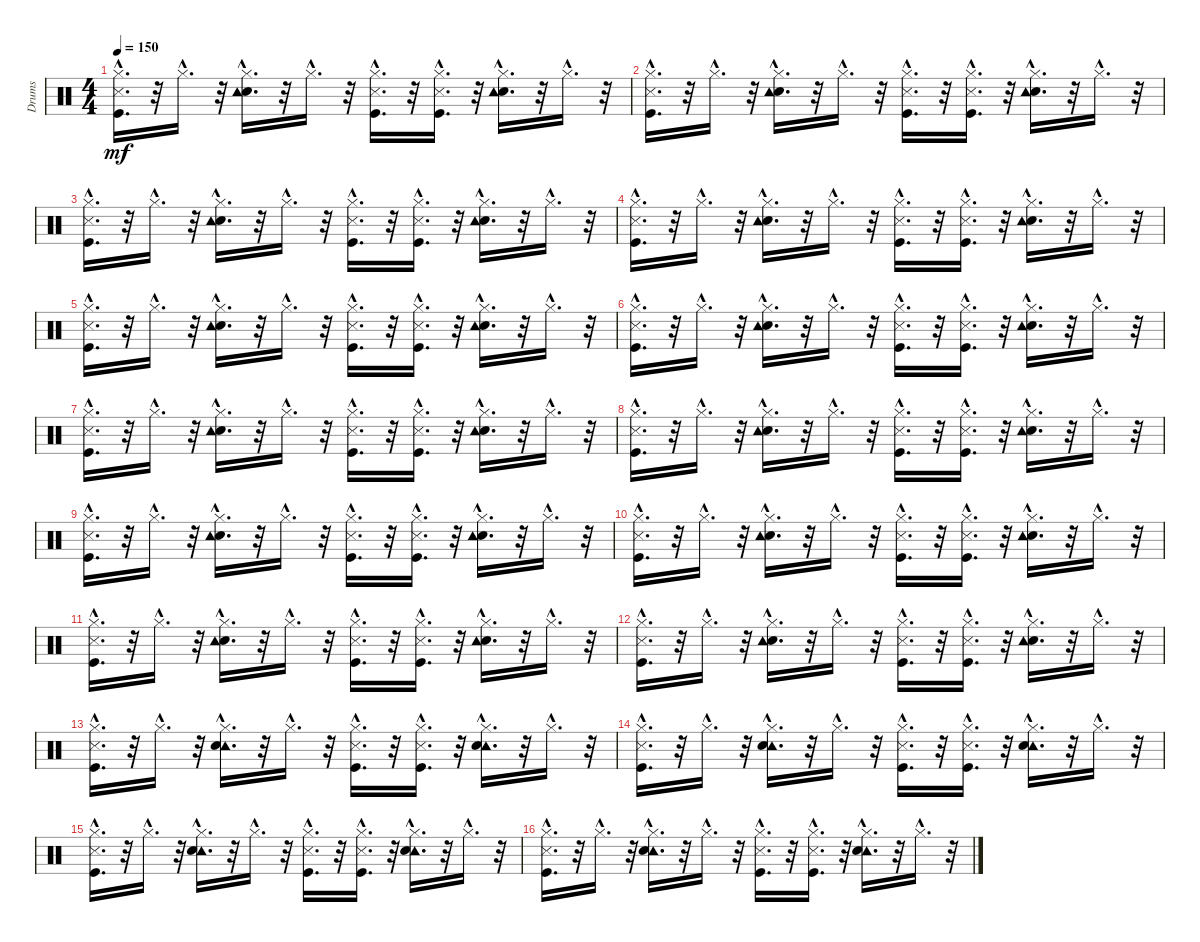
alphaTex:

\track ("Drums" "Drums") {instrument percussion}
\staff {score}
\articulation defaults
\ts (4 4)
\tempo 150
\clef neutral
\ks c
("Hi-Hat (closed)"{hac} "Kick (hit)"{hac} "Metronome (hit)"{hac}).16{d dy mf} r.32 "Hi-Hat (closed)"{hac}.16{d} r.32 ("Hi-Hat (closed)"{hac} "Electric Snare (hit)"{hac} "Tambourine (hit)"{hac}).16{d} r.32 "Hi-Hat (closed)"{hac}.16{d} r.32 ("Hi-Hat (closed)"{hac} "Kick (hit)"{hac} "Metronome (hit)"{hac}).16{d} r.32 ("Kick (hit)"{hac} "Metronome (hit)"{hac} "Hi-Hat (closed)"{hac}).16{d} r.32 ("Hi-Hat (closed)"{hac} "Electric Snare (hit)"{hac} "Tambourine (hit)"{hac}).16{d} r.32 "Hi-Hat (closed)"{hac}.16{d} r.32 |
("Hi-Hat (closed)"{hac} "Kick (hit)"{hac} "Metronome (hit)"{hac}).16{d} r.32 "Hi-Hat (closed)"{hac}.16{d} r.32 ("Hi-Hat (closed)"{hac} "Electric Snare (hit)"{hac} "Tambourine (hit)"{hac}).16{d} r.32 "Hi-Hat (closed)"{hac}.16{d} r.32 ("Hi-Hat (closed)"{hac} "Kick (hit)"{hac} "Metronome (hit)"{hac}).16{d} r.32 ("Kick (hit)"{hac} "Metronome (hit)"{hac} "Hi-Hat (closed)"{hac}).16{d} r.32 ("Hi-Hat (closed)"{hac} "Electric Snare (hit)"{hac} "Tambourine (hit)"{hac}).16{d} r.32 "Hi-Hat (closed)"{hac}.16{d} r.32 |
("Hi-Hat (closed)"{hac} "Kick (hit)"{hac} "Metronome (hit)"{hac}).16{d} r.32 "Hi-Hat (closed)"{hac}.16{d} r.32 ("Hi-Hat (closed)"{hac} "Electric Snare (hit)"{hac} "Tambourine (hit)"{hac}).16{d} r.32 "Hi-Hat (closed)"{hac}.16{d} r.32 ("Hi-Hat (closed)"{hac} "Kick (hit)"{hac} "Metronome (hit)"{hac}).16{d} r.32 ("Kick (hit)"{hac} "Metronome (hit)"{hac} "Hi-Hat (closed)"{hac}).16{d} r.32 ("Hi-Hat (closed)"{hac} "Electric Snare (hit)"{hac} "Tambourine (hit)"{hac}).16{d} r.32 "Hi-Hat (closed)"{hac}.16{d} r.32 |
("Hi-Hat (closed)"{hac} "Kick (hit)"{hac} "Metronome (hit)"{hac}).16{d} r.32 "Hi-Hat (closed)"{hac}.16{d} r.32 ("Hi-Hat (closed)"{hac} "Electric Snare (hit)"{hac} "Tambourine (hit)"{hac}).16{d} r.32 "Hi-Hat (closed)"{hac}.16{d} r.32 ("Hi-Hat (closed)"{hac} "Kick (hit)"{hac} "Metronome (hit)"{hac}).16{d} r.32 ("Kick (hit)"{hac} "Metronome (hit)"{hac} "Hi-Hat (closed)"{hac}).16{d} r.32 ("Hi-Hat (closed)"{hac} "Electric Snare (hit)"{hac} "Tambourine (hit)"{hac}).16{d} r.32 "Hi-Hat (closed)"{hac}.16{d} r.32 |
("Hi-Hat (closed)"{hac} "Kick (hit)"{hac} "Metronome (hit)"{hac}).16{d} r.32 "Hi-Hat (closed)"{hac}.16{d} r.32 ("Hi-Hat (closed)"{hac} "Electric Snare (hit)"{hac} "Tambourine (hit)"{hac}).16{d} r.32 "Hi-Hat (closed)"{hac}.16{d} r.32 ("Hi-Hat (closed)"{hac} "Kick (hit)"{hac} "Metronome (hit)"{hac}).16{d} r.32 ("Kick (hit)"{hac} "Metronome (hit)"{hac} "Hi-Hat (closed)"{hac}).16{d} r.32 ("Hi-Hat (closed)"{hac} "Electric Snare (hit)"{hac} "Tambourine (hit)"{hac}).16{d} r.32 "Hi-Hat (closed)"{hac}.16{d} r.32 |
("Hi-Hat (closed)"{hac} "Kick (hit)"{hac} "Metronome (hit)"{hac}).16{d} r.32 "Hi-Hat (closed)"{hac}.16{d} r.32 ("Hi-Hat (closed)"{hac} "Electric Snare (hit)"{hac} "Tambourine (hit)"{hac}).16{d} r.32 "Hi-Hat (closed)"{hac}.16{d} r.32 ("Hi-Hat (closed)"{hac} "Kick (hit)"{hac} "Metronome (hit)"{hac}).16{d} r.32 ("Kick (hit)"{hac} "Metronome (hit)"{hac} "Hi-Hat (closed)"{hac}).16{d} r.32 ("Hi-Hat (closed)"{hac} "Electric Snare (hit)"{hac} "Tambourine (hit)"{hac}).16{d} r.32 "Hi-Hat (closed)"{hac}.16{d} r.32 |
("Hi-Hat (closed)"{hac} "Kick (hit)"{hac} "Metronome (hit)"{hac}).16{d} r.32 "Hi-Hat (closed)"{hac}.16{d} r.32 ("Hi-Hat (closed)"{hac} "Electric Snare (hit)"{hac} "Tambourine (hit)"{hac}).16{d} r.32 "Hi-Hat (closed)"{hac}.16{d} r.32 ("Hi-Hat (closed)"{hac} "Kick (hit)"{hac} "Metronome (hit)"{hac}).16{d} r.32 ("Kick (hit)"{hac} "Metronome (hit)"{hac} "Hi-Hat (closed)"{hac}).16{d} r.32 ("Hi-Hat (closed)"{hac} "Electric Snare (hit)"{hac} "Tambourine (hit)"{hac}).16{d} r.32 "Hi-Hat (closed)"{hac}.16{d} r.32 |
("Hi-Hat (closed)"{hac} "Kick (hit)"{hac} "Metronome (hit)"{hac}).16{d} r.32 "Hi-Hat (closed)"{hac}.16{d} r.32 ("Hi-Hat (closed)"{hac} "Electric Snare (hit)"{hac} "Tambourine (hit)"{hac}).16{d} r.32 "Hi-Hat (closed)"{hac}.16{d} r.32 ("Hi-Hat (closed)"{hac} "Kick (hit)"{hac} "Metronome (hit)"{hac}).16{d} r.32 ("Kick (hit)"{hac} "Metronome (hit)"{hac} "Hi-Hat (closed)"{hac}).16{d} r.32 ("Hi-Hat (closed)"{hac} "Electric Snare (hit)"{hac} "Tambourine (hit)"{hac}).16{d} r.32 "Hi-Hat (closed)"{hac}.16{d} r.32 |
("Hi-Hat (closed)"{hac} "Kick (hit)"{hac} "Metronome (hit)"{hac}).16{d} r.32 "Hi-Hat (closed)"{hac}.16{d} r.32 ("Hi-Hat (closed)"{hac} "Electric Snare (hit)"{hac} "Tambourine (hit)"{hac}).16{d} r.32 "Hi-Hat (closed)"{hac}.16{d} r.32 ("Hi-Hat (closed)"{hac} "Kick (hit)"{hac} "Metronome (hit)"{hac}).16{d} r.32 ("Kick (hit)"{hac} "Metronome (hit)"{hac} "Hi-Hat (closed)"{hac}).16{d} r.32 ("Hi-Hat (closed)"{hac} "Electric Snare (hit)"{hac} "Tambourine (hit)"{hac}).16{d} r.32 "Hi-Hat (closed)"{hac}.16{d} r.32 |
("Hi-Hat (closed)"{hac} "Kick (hit)"{hac} "Metronome (hit)"{hac}).16{d} r.32 "Hi-Hat (closed)"{hac}.16{d} r.32 ("Hi-Hat (closed)"{hac} "Electric Snare (hit)"{hac} "Tambourine (hit)"{hac}).16{d} r.32 "Hi-Hat (closed)"{hac}.16{d} r.32 ("Hi-Hat (closed)"{hac} "Kick (hit)"{hac} "Metronome (hit)"{hac}).16{d} r.32 ("Kick (hit)"{hac} "Metronome (hit)"{hac} "Hi-Hat (closed)"{hac}).16{d} r.32 ("Hi-Hat (closed)"{hac} "Electric Snare (hit)"{hac} "Tambourine (hit)"{hac}).16{d} r.32 "Hi-Hat (closed)"{hac}.16{d} r.32 |
("Hi-Hat (closed)"{hac} "Kick (hit)"{hac} "Metronome (hit)"{hac}).16{d} r.32 "Hi-Hat (closed)"{hac}.16{d} r.32 ("Hi-Hat (closed)"{hac} "Electric Snare (hit)"{hac} "Tambourine (hit)"{hac}).16{d} r.32 "Hi-Hat (closed)"{hac}.16{d} r.32 ("Hi-Hat (closed)"{hac} "Kick (hit)"{hac} "Metronome (hit)"{hac}).16{d} r.32 ("Kick (hit)"{hac} "Metronome (hit)"{hac} "Hi-Hat (closed)"{hac}).16{d} r.32 ("Hi-Hat (closed)"{hac} "Electric Snare (hit)"{hac} "Tambourine (hit)"{hac}).16{d} r.32 "Hi-Hat (closed)"{hac}.16{d} r.32 |
("Hi-Hat (closed)"{hac} "Kick (hit)"{hac} "Metronome (hit)"{hac}).16{d} r.32 "Hi-Hat (closed)"{hac}.16{d} r.32 ("Hi-Hat (closed)"{hac} "Electric Snare (hit)"{hac} "Tambourine (hit)"{hac}).16{d} r.32 "Hi-Hat (closed)"{hac}.16{d} r.32 ("Hi-Hat (closed)"{hac} "Kick (hit)"{hac} "Metronome (hit)"{hac}).16{d} r.32 ("Kick (hit)"{hac} "Metronome (hit)"{hac} "Hi-Hat (closed)"{hac}).16{d} r.32 ("Hi-Hat (closed)"{hac} "Electric Snare (hit)"{hac} "Tambourine (hit)"{hac}).16{d} r.32 "Hi-Hat (closed)"{hac}.16{d} r.32 |
("Metronome (hit)"{hac} "Kick (hit)"{hac} "Hi-Hat (closed)"{hac}).16{d} r.32 "Hi-Hat (closed)"{hac}.16{d} r.32 ("Tambourine (hit)"{hac} "Electric Snare (hit)"{hac} "Hi-Hat (closed)"{hac}).16{d} r.32 "Hi-Hat (closed)"{hac}.16{d} r.32 ("Metronome (hit)"{hac} "Kick (hit)"{hac} "Hi-Hat (closed)"{hac}).16{d} r.32 ("Hi-Hat (closed)"{hac} "Metronome (hit)"{hac} "Kick (hit)"{hac}).16{d} r.32 ("Tambourine (hit)"{hac} "Electric Snare (hit)"{hac} "Hi-Hat (closed)"{hac}).16{d} r.32 "Hi-Hat (closed)"{hac}.16{d} r.32 |
("Metronome (hit)"{hac} "Kick (hit)"{hac} "Hi-Hat (closed)"{hac}).16{d} r.32 "Hi-Hat (closed)"{hac}.16{d} r.32 ("Tambourine (hit)"{hac} "Electric Snare (hit)"{hac} "Hi-Hat (closed)"{hac}).16{d} r.32 "Hi-Hat (closed)"{hac}.16{d} r.32 ("Metronome (hit)"{hac} "Kick (hit)"{hac} "Hi-Hat (closed)"{hac}).16{d} r.32 ("Hi-Hat (closed)"{hac} "Metronome (hit)"{hac} "Kick (hit)"{hac}).16{d} r.32 ("Tambourine (hit)"{hac} "Electric Snare (hit)"{hac} "Hi-Hat (closed)"{hac}).16{d} r.32 "Hi-Hat (closed)"{hac}.16{d} r.32 |
("Metronome (hit)"{hac} "Kick (hit)"{hac} "Hi-Hat (closed)"{hac}).16{d} r.32 "Hi-Hat (closed)"{hac}.16{d} r.32 ("Tambourine (hit)"{hac} "Electric Snare (hit)"{hac} "Hi-Hat (closed)"{hac}).16{d} r.32 "Hi-Hat (closed)"{hac}.16{d} r.32 ("Metronome (hit)"{hac} "Kick (hit)"{hac} "Hi-Hat (closed)"{hac}).16{d} r.32 ("Hi-Hat (closed)"{hac} "Metronome (hit)"{hac} "Kick (hit)"{hac}).16{d} r.32 ("Tambourine (hit)"{hac} "Electric Snare (hit)"{hac} "Hi-Hat (closed)"{hac}).16{d} r.32 "Hi-Hat (closed)"{hac}.16{d} r.32 |
("Metronome (hit)"{hac} "Kick (hit)"{hac} "Hi-Hat (closed)"{hac}).16{d} r.32 "Hi-Hat (closed)"{hac}.16{d} r.32 ("Tambourine (hit)"{hac} "Electric Snare (hit)"{hac} "Hi-Hat (closed)"{hac}).16{d} r.32 "Hi-Hat (closed)"{hac}.16{d} r.32 ("Metronome (hit)"{hac} "Kick (hit)"{hac} "Hi-Hat (closed)"{hac}).16{d} r.32 ("Hi-Hat (closed)"{hac} "Metronome (hit)"{hac} "Kick (hit)"{hac}).16{d} r.32 ("Tambourine (hit)"{hac} "Electric Snare (hit)"{hac} "Hi-Hat (closed)"{hac}).16{d} r.32 "Hi-Hat (closed)"{hac}.16{d} r.32
